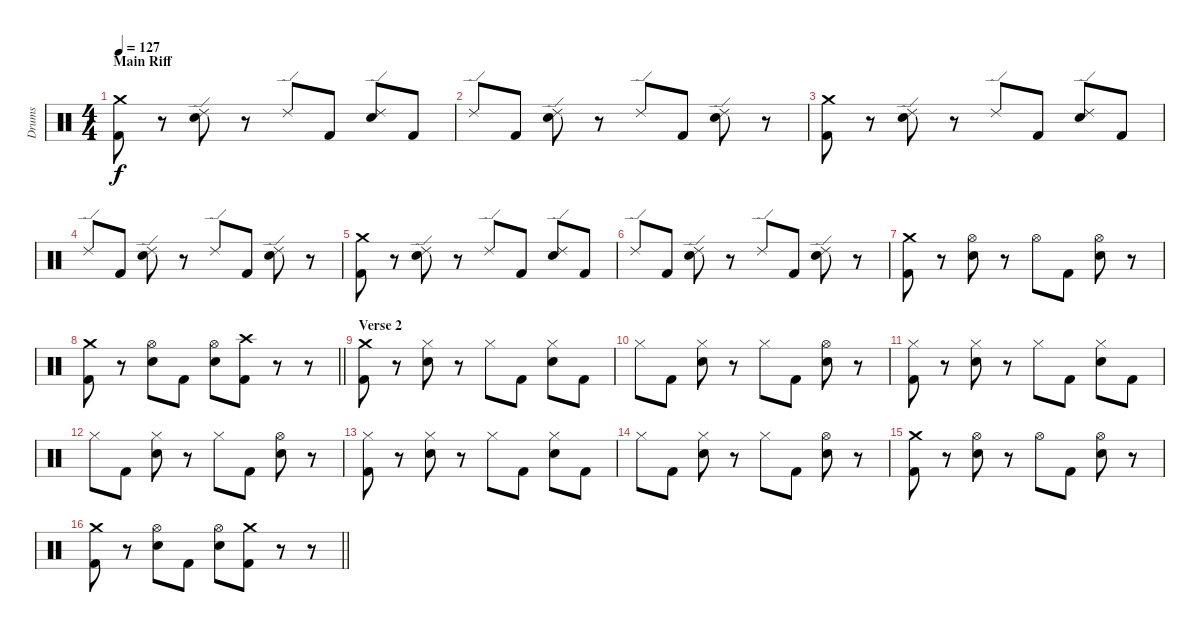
\track ("Drums" "Drums") {instrument percussion}
\staff {score}
\articulation defaults
\ts (4 4)
\section ("" "Main Riff")
\tempo 127
\clef neutral
\ks c
("Crash medium (hit)" "Kick (hit) 2").8{dy f} r.8 ("Ride (edge) 2" "Electric Snare (hit)").8 r.8 "Ride (edge) 2".8 "Kick (hit) 2".8 ("Ride (edge) 2" "Electric Snare (hit)").8 "Kick (hit) 2".8 |
"Ride (edge) 2".8 "Kick (hit) 2".8 ("Ride (edge) 2" "Electric Snare (hit)").8 r.8 "Ride (edge) 2".8 "Kick (hit) 2".8 ("Ride (edge) 2" "Electric Snare (hit)").8 r.8 |
("Crash medium (hit)" "Kick (hit) 2").8 r.8 ("Ride (edge) 2" "Electric Snare (hit)").8 r.8 "Ride (edge) 2".8 "Kick (hit) 2".8 ("Ride (edge) 2" "Electric Snare (hit)").8 "Kick (hit) 2".8 |
"Ride (edge) 2".8 "Kick (hit) 2".8 ("Ride (edge) 2" "Electric Snare (hit)").8 r.8 "Ride (edge) 2".8 "Kick (hit) 2".8 ("Ride (edge) 2" "Electric Snare (hit)").8 r.8 |
("Crash medium (hit)" "Kick (hit) 2").8 r.8 ("Ride (edge) 2" "Electric Snare (hit)").8 r.8 "Ride (edge) 2".8 "Kick (hit) 2".8 ("Ride (edge) 2" "Electric Snare (hit)").8 "Kick (hit) 2".8 |
"Ride (edge) 2".8 "Kick (hit) 2".8 ("Ride (edge) 2" "Electric Snare (hit)").8 r.8 "Ride (edge) 2".8 "Kick (hit) 2".8 ("Ride (edge) 2" "Electric Snare (hit)").8 r.8 |
("Crash medium (hit)" "Kick (hit) 2").8 r.8 ("Hi-Hat (open)" "Electric Snare (hit)").8 r.8 "Hi-Hat (open)".8 "Kick (hit) 2".8 ("Hi-Hat (open)" "Electric Snare (hit)").8 r.8 |
\barLineRight lightlight
("Crash medium (hit)" "Kick (hit) 2").8 r.8 ("Hi-Hat (open)" "Electric Snare (hit)").8 "Kick (hit) 2".8 ("Hi-Hat (open)" "Electric Snare (hit)").8 ("Crash high (hit)" "Kick (hit) 2").8 r.8 r.8 |
\section ("" "Verse 2")
("Crash medium (hit)" "Kick (hit) 2").8 r.8 ("Hi-Hat (closed)" "Electric Snare (hit)").8 r.8 "Hi-Hat (closed)".8 "Kick (hit) 2".8 ("Hi-Hat (closed)" "Electric Snare (hit)").8 "Kick (hit) 2".8 |
"Hi-Hat (closed)".8 "Kick (hit) 2".8 ("Hi-Hat (closed)" "Electric Snare (hit)").8 r.8 "Hi-Hat (closed)".8 "Kick (hit) 2".8 ("Hi-Hat (open)" "Electric Snare (hit)").8 r.8 |
("Hi-Hat (closed)" "Kick (hit) 2").8 r.8 ("Hi-Hat (closed)" "Electric Snare (hit)").8 r.8 "Hi-Hat (closed)".8 "Kick (hit) 2".8 ("Hi-Hat (closed)" "Electric Snare (hit)").8 "Kick (hit) 2".8 |
"Hi-Hat (closed)".8 "Kick (hit) 2".8 ("Hi-Hat (closed)" "Electric Snare (hit)").8 r.8 "Hi-Hat (closed)".8 "Kick (hit) 2".8 ("Hi-Hat (open)" "Electric Snare (hit)").8 r.8 |
("Hi-Hat (closed)" "Kick (hit) 2").8 r.8 ("Hi-Hat (closed)" "Electric Snare (hit)").8 r.8 "Hi-Hat (closed)".8 "Kick (hit) 2".8 ("Hi-Hat (closed)" "Electric Snare (hit)").8 "Kick (hit) 2".8 |
"Hi-Hat (closed)".8 "Kick (hit) 2".8 ("Hi-Hat (closed)" "Electric Snare (hit)").8 r.8 "Hi-Hat (closed)".8 "Kick (hit) 2".8 ("Hi-Hat (open)" "Electric Snare (hit)").8 r.8 |
("Crash medium (hit)" "Kick (hit) 2").8 r.8 ("Hi-Hat (open)" "Electric Snare (hit)").8 r.8 "Hi-Hat (open)".8 "Kick (hit) 2".8 ("Hi-Hat (open)" "Electric Snare (hit)").8 r.8 |
\barLineRight lightlight
("Crash medium (hit)" "Kick (hit) 2").8 r.8 ("Hi-Hat (open)" "Electric Snare (hit)").8 "Kick (hit) 2".8 ("Hi-Hat (open)" "Electric Snare (hit)").8 ("Crash medium (hit)" "Kick (hit) 2").8 r.8 r.8
